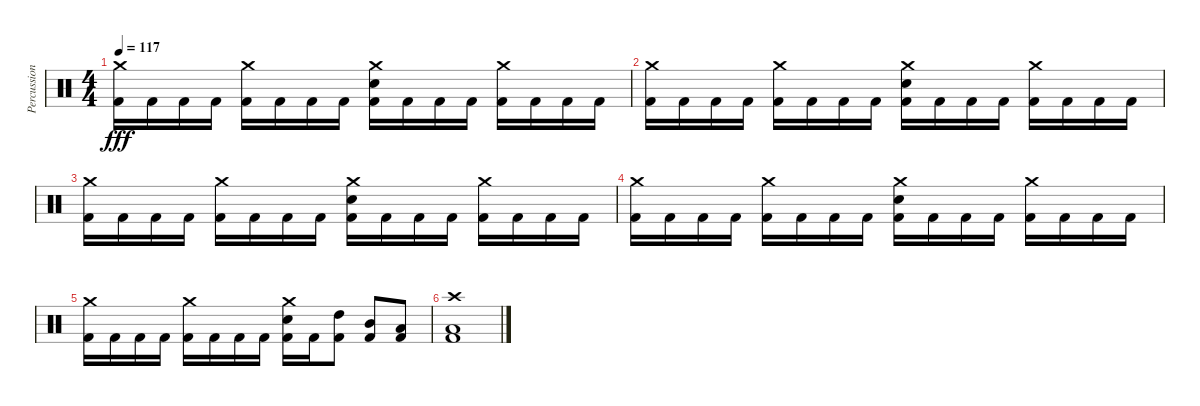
\track ("Percussioni" "Percussion") {instrument percussion}
\staff {score}
\articulation defaults
\ts (4 4)
\tempo 117
\clef neutral
\ks c
("Crash medium (hit)" "Kick (hit) 2").16{dy fff} "Kick (hit) 2".16 "Kick (hit) 2".16 "Kick (hit) 2".16 ("Crash medium (hit)" "Kick (hit) 2").16 "Kick (hit) 2".16 "Kick (hit) 2".16 "Kick (hit) 2".16 ("Crash medium (hit)" "Electric Snare (hit)" "Kick (hit) 2").16 "Kick (hit) 2".16 "Kick (hit) 2".16 "Kick (hit) 2".16 ("Crash medium (hit)" "Kick (hit) 2").16 "Kick (hit) 2".16 "Kick (hit) 2".16 "Kick (hit) 2".16 |
("Crash medium (hit)" "Kick (hit) 2").16 "Kick (hit) 2".16 "Kick (hit) 2".16 "Kick (hit) 2".16 ("Crash medium (hit)" "Kick (hit) 2").16 "Kick (hit) 2".16 "Kick (hit) 2".16 "Kick (hit) 2".16 ("Crash medium (hit)" "Electric Snare (hit)" "Kick (hit) 2").16 "Kick (hit) 2".16 "Kick (hit) 2".16 "Kick (hit) 2".16 ("Crash medium (hit)" "Kick (hit) 2").16 "Kick (hit) 2".16 "Kick (hit) 2".16 "Kick (hit) 2".16 |
("Crash medium (hit)" "Kick (hit) 2").16 "Kick (hit) 2".16 "Kick (hit) 2".16 "Kick (hit) 2".16 ("Crash medium (hit)" "Kick (hit) 2").16 "Kick (hit) 2".16 "Kick (hit) 2".16 "Kick (hit) 2".16 ("Crash medium (hit)" "Electric Snare (hit)" "Kick (hit) 2").16 "Kick (hit) 2".16 "Kick (hit) 2".16 "Kick (hit) 2".16 ("Crash medium (hit)" "Kick (hit) 2").16 "Kick (hit) 2".16 "Kick (hit) 2".16 "Kick (hit) 2".16 |
("Crash medium (hit)" "Kick (hit) 2").16 "Kick (hit) 2".16 "Kick (hit) 2".16 "Kick (hit) 2".16 ("Crash medium (hit)" "Kick (hit) 2").16 "Kick (hit) 2".16 "Kick (hit) 2".16 "Kick (hit) 2".16 ("Crash medium (hit)" "Electric Snare (hit)" "Kick (hit) 2").16 "Kick (hit) 2".16 "Kick (hit) 2".16 "Kick (hit) 2".16 ("Crash medium (hit)" "Kick (hit) 2").16 "Kick (hit) 2".16 "Kick (hit) 2".16 "Kick (hit) 2".16 |
("Crash medium (hit)" "Kick (hit) 2").16 "Kick (hit) 2".16 "Kick (hit) 2".16 "Kick (hit) 2".16 ("Crash medium (hit)" "Kick (hit) 2").16 "Kick (hit) 2".16 "Kick (hit) 2".16 "Kick (hit) 2".16 ("Crash medium (hit)" "Electric Snare (hit)" "Kick (hit) 2").16 "Kick (hit) 2".16 ("High Tom (hit)" "Kick (hit) 2").8 ("Mid Tom (hit)" "Kick (hit) 2").8 ("Low Tom (hit)" "Kick (hit) 2").8 |
("Crash high (hit)" "Low Floor Tom (hit)" "Kick (hit) 2").1
